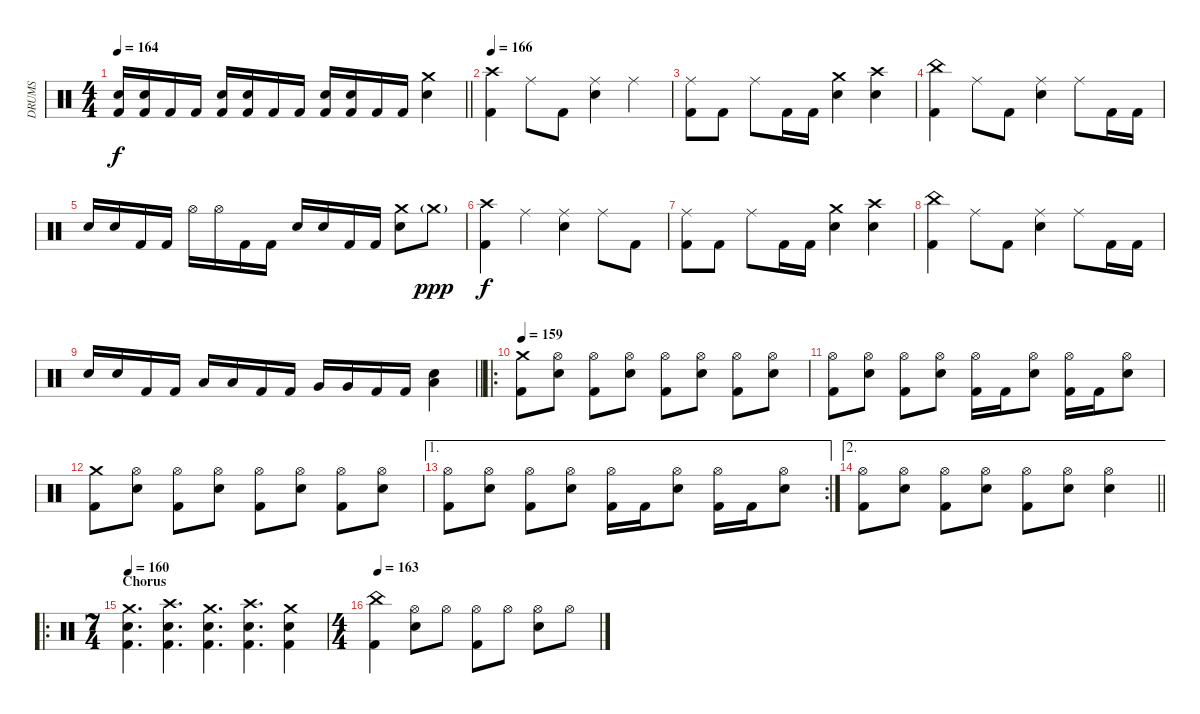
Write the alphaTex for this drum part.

\track ("DRUMS" "DRUMS") {instrument percussion}
\staff {score}
\articulation defaults
\ts (4 4)
\tempo 164
\clef neutral
\barLineRight lightlight
\ks c
("Snare (hit) 2" "Kick (hit) 2").16{dy f} ("Snare (hit) 2" "Kick (hit) 2").16 "Kick (hit) 2".16 "Kick (hit) 2".16 ("Snare (hit) 2" "Kick (hit) 2").16 ("Snare (hit) 2" "Kick (hit) 2").16 "Kick (hit) 2".16 "Kick (hit) 2".16 ("Snare (hit) 2" "Kick (hit) 2").16 ("Snare (hit) 2" "Kick (hit) 2").16 "Kick (hit) 2".16 "Kick (hit) 2".16 ("Crash medium (hit)" "Snare (hit) 2").4 |
\tempo 166
("Crash high (hit)" "Kick (hit) 2").4 "Ride (middle)".8 "Kick (hit) 2".8 ("Ride (middle)" "Snare (hit) 2").4 "Ride (middle)".4 |
("Ride (middle)" "Kick (hit) 2").8 "Kick (hit) 2".8 "Ride (middle)".8 "Kick (hit) 2".16 "Kick (hit) 2".16 ("Crash medium (hit)" "Snare (hit) 2").4 ("Crash high (hit)" "Snare (hit) 2").4 |
("China (hit)" "Kick (hit) 2").4 "Ride (middle)".8 "Kick (hit) 2".8 ("Ride (middle)" "Snare (hit) 2").4 "Ride (middle)".8 "Kick (hit) 2".16 "Kick (hit) 2".16 |
"Snare (hit) 2".16 "Snare (hit) 2".16 "Kick (hit) 2".16 "Kick (hit) 2".16 "Hi-Hat (open)".16 "Hi-Hat (open)".16 "Kick (hit) 2".16 "Kick (hit) 2".16 "Snare (hit) 2".16 "Snare (hit) 2".16 "Kick (hit) 2".16 "Kick (hit) 2".16 ("Crash medium (hit)" "Snare (hit) 2").8 "Crash medium (hit)"{g}.8{dy ppp} |
("Crash high (hit)" "Kick (hit) 2").4{dy f} "Ride (middle)".4 ("Ride (middle)" "Snare (hit) 2").4 "Ride (middle)".8 "Kick (hit) 2".8 |
("Ride (middle)" "Kick (hit) 2").8 "Kick (hit) 2".8 "Ride (middle)".8 "Kick (hit) 2".16 "Kick (hit) 2".16 ("Crash medium (hit)" "Snare (hit) 2").4 ("Crash high (hit)" "Snare (hit) 2").4 |
("China (hit)" "Kick (hit) 2").4 "Ride (middle)".8 "Kick (hit) 2".8 ("Ride (middle)" "Snare (hit) 2").4 "Ride (middle)".8 "Kick (hit) 2".16 "Kick (hit) 2".16 |
\barLineRight lightlight "Snare (hit) 2".16 "Snare (hit) 2".16 "Kick (hit) 2".16 "Kick (hit) 2".16 "Low Tom (hit)".16 "Low Tom (hit)".16 "Kick (hit) 2".16 "Kick (hit) 2".16 "Very Low Tom (hit)".16 "Very Low Tom (hit)".16 "Kick (hit) 2".16 "Kick (hit) 2".16
("Low Floor Tom (hit)" "Snare (hit) 2").4 |
\ro
\tempo 159
("Crash medium (hit)" "Kick (hit) 2").8 ("Hi-Hat (open)" "Snare (hit) 2").8 ("Hi-Hat (open)" "Kick (hit) 2").8 ("Hi-Hat (open)" "Snare (hit) 2").8 ("Hi-Hat (open)" "Kick (hit) 2").8 ("Hi-Hat (open)" "Snare (hit) 2").8 ("Hi-Hat (open)" "Kick (hit) 2").8 ("Hi-Hat (open)" "Snare (hit) 2").8 |
("Hi-Hat (open)" "Kick (hit) 2").8 ("Hi-Hat (open)" "Snare (hit) 2").8 ("Hi-Hat (open)" "Kick (hit) 2").8 ("Hi-Hat (open)" "Snare (hit) 2").8 ("Hi-Hat (open)" "Kick (hit) 2").16 "Kick (hit) 2".16 ("Hi-Hat (open)" "Snare (hit) 2").8 ("Hi-Hat (open)" "Kick (hit) 2").16 "Kick (hit) 2".16 ("Hi-Hat (open)" "Snare (hit) 2").8 |
("Crash medium (hit)" "Kick (hit) 2").8 ("Hi-Hat (open)" "Snare (hit) 2").8 ("Hi-Hat (open)" "Kick (hit) 2").8 ("Hi-Hat (open)" "Snare (hit) 2").8 ("Hi-Hat (open)" "Kick (hit) 2").8 ("Hi-Hat (open)" "Snare (hit) 2").8 ("Hi-Hat (open)" "Kick (hit) 2").8 ("Hi-Hat (open)" "Snare (hit) 2").8 |
\ae 1
\rc 2
("Hi-Hat (open)" "Kick (hit) 2").8 ("Hi-Hat (open)" "Snare (hit) 2").8 ("Hi-Hat (open)" "Kick (hit) 2").8 ("Hi-Hat (open)" "Snare (hit) 2").8 ("Hi-Hat (open)" "Kick (hit) 2").16 "Kick (hit) 2".16 ("Hi-Hat (open)" "Snare (hit) 2").8 ("Hi-Hat (open)" "Kick (hit) 2").16 "Kick (hit) 2".16 ("Hi-Hat (open)" "Snare (hit) 2").8 |
\ae 2
\barLineRight lightlight
("Hi-Hat (open)" "Kick (hit) 2").8 ("Hi-Hat (open)" "Snare (hit) 2").8 ("Hi-Hat (open)" "Kick (hit) 2").8 ("Hi-Hat (open)" "Snare (hit) 2").8 ("Hi-Hat (open)" "Kick (hit) 2").8 ("Hi-Hat (open)" "Snare (hit) 2").8 ("Hi-Hat (open)" "Snare (hit) 2").4 |
\ro
\ts (7 4)
\section ("" "Chorus")
\tempo 160
("Crash medium (hit)" "Snare (hit) 2" "Kick (hit) 2").4{d} ("Crash high (hit)" "Snare (hit) 2" "Kick (hit) 2").4{d} ("Crash medium (hit)" "Snare (hit) 2" "Kick (hit) 2").4{d} ("Crash high (hit)" "Snare (hit) 2" "Kick (hit) 2").4{d} ("Crash medium (hit)" "Snare (hit) 2" "Kick (hit) 2").4 |
\ts (4 4)
\tempo 163
("China (hit)" "Kick (hit) 2").4 ("Hi-Hat (open)" "Snare (hit) 2").8 "Hi-Hat (open)".8 ("Hi-Hat (open)" "Kick (hit) 2").8 "Hi-Hat (open)".8 ("Hi-Hat (open)" "Snare (hit) 2").8 "Hi-Hat (open)".8
